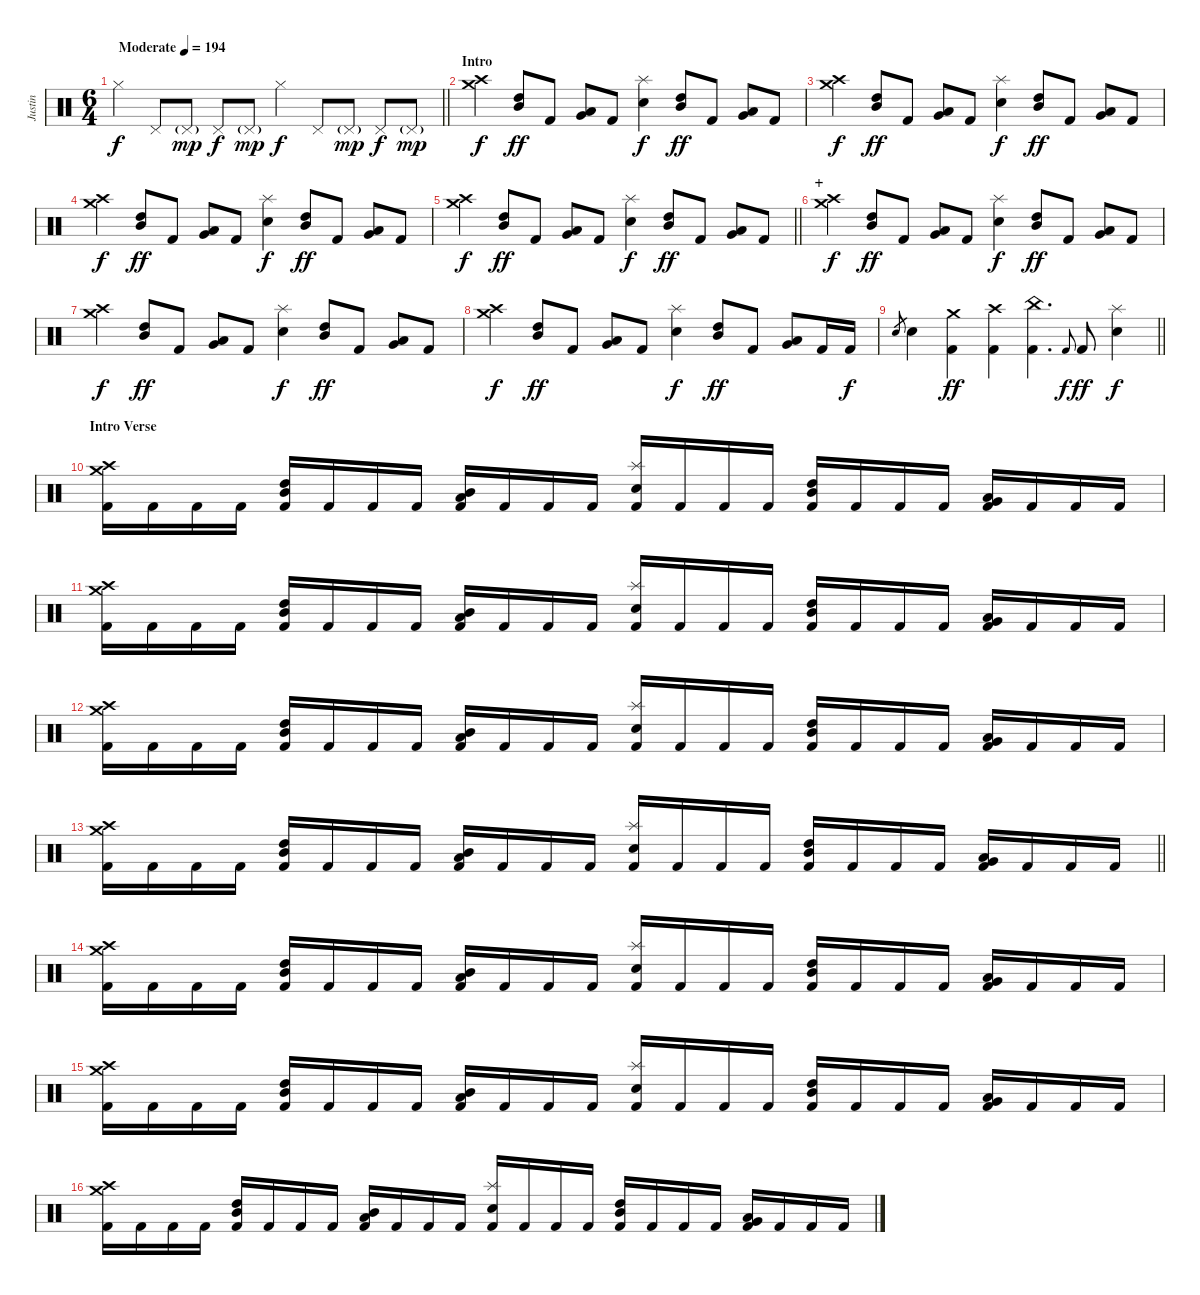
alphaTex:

\track ("Justin" "Justin") {instrument percussion}
\staff {score}
\articulation defaults
\ts (6 4)
\tempo (194 "Moderate")
\clef neutral
\barLineRight lightlight
\ks c "Hi-Hat (closed)".4{dy f} "Pedal Hi-Hat (hit)".8 "Pedal Hi-Hat (hit)"{g}.8{dy mp} "Pedal Hi-Hat (hit)".8{dy f} "Pedal Hi-Hat (hit)"{g}.8{dy mp} "Hi-Hat (closed)".4{dy f} "Pedal Hi-Hat (hit)".8 "Pedal Hi-Hat (hit)"{g}.8{dy mp} "Pedal Hi-Hat (hit)".8{dy f} "Pedal Hi-Hat (hit)"{g}.8{dy mp}
|
\section ("" "Intro")
("Crash medium (hit)" "Crash high (hit)").4{dy f} ("High Tom (hit)" "Mid Tom (hit)").8{dy ff} "Kick (hit) 2".8 ("Low Tom (hit)" "Very Low Tom (hit)").8 "Kick (hit) 2".8 ("Splash (hit)" "Electric Snare (hit)").4{dy f} ("High Tom (hit)" "Mid Tom (hit)").8{dy ff} "Kick (hit) 2".8 ("Low Tom (hit)" "Very Low Tom (hit)").8 "Kick (hit) 2".8 |
("Crash medium (hit)" "Crash high (hit)").4{dy f} ("High Tom (hit)" "Mid Tom (hit)").8{dy ff} "Kick (hit) 2".8 ("Low Tom (hit)" "Very Low Tom (hit)").8 "Kick (hit) 2".8 ("Splash (hit)" "Electric Snare (hit)").4{dy f} ("High Tom (hit)" "Mid Tom (hit)").8{dy ff} "Kick (hit) 2".8 ("Low Tom (hit)" "Very Low Tom (hit)").8 "Kick (hit) 2".8 |
("Crash medium (hit)" "Crash high (hit)").4{dy f} ("High Tom (hit)" "Mid Tom (hit)").8{dy ff} "Kick (hit) 2".8 ("Low Tom (hit)" "Very Low Tom (hit)").8 "Kick (hit) 2".8 ("Splash (hit)" "Electric Snare (hit)").4{dy f} ("High Tom (hit)" "Mid Tom (hit)").8{dy ff} "Kick (hit) 2".8 ("Low Tom (hit)" "Very Low Tom (hit)").8 "Kick (hit) 2".8 |
\barLineRight lightlight
("Crash medium (hit)" "Crash high (hit)").4{dy f} ("High Tom (hit)" "Mid Tom (hit)").8{dy ff} "Kick (hit) 2".8 ("Low Tom (hit)" "Very Low Tom (hit)").8 "Kick (hit) 2".8 ("Splash (hit)" "Electric Snare (hit)").4{dy f} ("High Tom (hit)" "Mid Tom (hit)").8{dy ff} "Kick (hit) 2".8 ("Low Tom (hit)" "Very Low Tom (hit)").8 "Kick (hit) 2".8 |
\section ("" "+")
("Crash medium (hit)" "Crash high (hit)").4{dy f} ("High Tom (hit)" "Mid Tom (hit)").8{dy ff} "Kick (hit) 2".8 ("Low Tom (hit)" "Very Low Tom (hit)").8 "Kick (hit) 2".8 ("Splash (hit)" "Electric Snare (hit)").4{dy f} ("High Tom (hit)" "Mid Tom (hit)").8{dy ff} "Kick (hit) 2".8 ("Low Tom (hit)" "Very Low Tom (hit)").8 "Kick (hit) 2".8 |
("Crash medium (hit)" "Crash high (hit)").4{dy f} ("High Tom (hit)" "Mid Tom (hit)").8{dy ff} "Kick (hit) 2".8 ("Low Tom (hit)" "Very Low Tom (hit)").8 "Kick (hit) 2".8 ("Splash (hit)" "Electric Snare (hit)").4{dy f} ("High Tom (hit)" "Mid Tom (hit)").8{dy ff} "Kick (hit) 2".8 ("Low Tom (hit)" "Very Low Tom (hit)").8 "Kick (hit) 2".8 |
("Crash medium (hit)" "Crash high (hit)").4{dy f} ("High Tom (hit)" "Mid Tom (hit)").8{dy ff} "Kick (hit) 2".8 ("Low Tom (hit)" "Very Low Tom (hit)").8 "Kick (hit) 2".8 ("Splash (hit)" "Electric Snare (hit)").4{dy f} ("High Tom (hit)" "Mid Tom (hit)").8{dy ff} "Kick (hit) 2".8 ("Low Tom (hit)" "Very Low Tom (hit)").8 "Kick (hit) 2".16 "Kick (hit) 2".16{dy f} |
\barLineRight lightlight "Electric Snare (hit)".8{gr} "Electric Snare (hit)".4
("Crash medium (hit)" "Kick (hit) 2").4{dy ff} ("Crash high (hit)" "Kick (hit) 2").4 ("China (hit)" "Kick (hit) 2").4{d} "Kick (hit) 2".8{gr onbeat dy f} "Kick (hit) 2".8{dy ff} ("Splash (hit)" "Electric Snare (hit)").4{dy f} |
\section ("" "Intro Verse")
("Crash medium (hit)" "Crash high (hit)" "Kick (hit) 2").16 "Kick (hit) 2".16 "Kick (hit) 2".16 "Kick (hit) 2".16 ("High Tom (hit)" "Mid Tom (hit)" "Kick (hit) 2").16 "Kick (hit) 2".16 "Kick (hit) 2".16 "Kick (hit) 2".16 ("Mid Tom (hit)" "Low Tom (hit)" "Kick (hit) 2").16 "Kick (hit) 2".16 "Kick (hit) 2".16 "Kick (hit) 2".16 ("Splash (hit)" "Electric Snare (hit)" "Kick (hit) 2").16 "Kick (hit) 2".16 "Kick (hit) 2".16 "Kick (hit) 2".16 ("High Tom (hit)" "Mid Tom (hit)" "Kick (hit) 2").16 "Kick (hit) 2".16 "Kick (hit) 2".16 "Kick (hit) 2".16 ("Low Tom (hit)" "Very Low Tom (hit)" "Kick (hit) 2").16 "Kick (hit) 2".16 "Kick (hit) 2".16 "Kick (hit) 2".16 |
("Crash medium (hit)" "Crash high (hit)" "Kick (hit) 2").16 "Kick (hit) 2".16 "Kick (hit) 2".16 "Kick (hit) 2".16 ("High Tom (hit)" "Mid Tom (hit)" "Kick (hit) 2").16 "Kick (hit) 2".16 "Kick (hit) 2".16 "Kick (hit) 2".16 ("Mid Tom (hit)" "Low Tom (hit)" "Kick (hit) 2").16 "Kick (hit) 2".16 "Kick (hit) 2".16 "Kick (hit) 2".16 ("Splash (hit)" "Electric Snare (hit)" "Kick (hit) 2").16 "Kick (hit) 2".16 "Kick (hit) 2".16 "Kick (hit) 2".16 ("High Tom (hit)" "Mid Tom (hit)" "Kick (hit) 2").16 "Kick (hit) 2".16 "Kick (hit) 2".16 "Kick (hit) 2".16 ("Low Tom (hit)" "Very Low Tom (hit)" "Kick (hit) 2").16 "Kick (hit) 2".16 "Kick (hit) 2".16 "Kick (hit) 2".16 |
("Crash medium (hit)" "Crash high (hit)" "Kick (hit) 2").16 "Kick (hit) 2".16 "Kick (hit) 2".16 "Kick (hit) 2".16 ("High Tom (hit)" "Mid Tom (hit)" "Kick (hit) 2").16 "Kick (hit) 2".16 "Kick (hit) 2".16 "Kick (hit) 2".16 ("Mid Tom (hit)" "Low Tom (hit)" "Kick (hit) 2").16 "Kick (hit) 2".16 "Kick (hit) 2".16 "Kick (hit) 2".16 ("Splash (hit)" "Electric Snare (hit)" "Kick (hit) 2").16 "Kick (hit) 2".16 "Kick (hit) 2".16 "Kick (hit) 2".16 ("High Tom (hit)" "Mid Tom (hit)" "Kick (hit) 2").16 "Kick (hit) 2".16 "Kick (hit) 2".16 "Kick (hit) 2".16 ("Low Tom (hit)" "Very Low Tom (hit)" "Kick (hit) 2").16 "Kick (hit) 2".16 "Kick (hit) 2".16 "Kick (hit) 2".16 |
\barLineRight lightlight
("Crash medium (hit)" "Crash high (hit)" "Kick (hit) 2").16 "Kick (hit) 2".16 "Kick (hit) 2".16 "Kick (hit) 2".16 ("High Tom (hit)" "Mid Tom (hit)" "Kick (hit) 2").16 "Kick (hit) 2".16 "Kick (hit) 2".16 "Kick (hit) 2".16 ("Mid Tom (hit)" "Low Tom (hit)" "Kick (hit) 2").16 "Kick (hit) 2".16 "Kick (hit) 2".16 "Kick (hit) 2".16 ("Splash (hit)" "Electric Snare (hit)" "Kick (hit) 2").16 "Kick (hit) 2".16 "Kick (hit) 2".16 "Kick (hit) 2".16 ("High Tom (hit)" "Mid Tom (hit)" "Kick (hit) 2").16 "Kick (hit) 2".16 "Kick (hit) 2".16 "Kick (hit) 2".16 ("Low Tom (hit)" "Very Low Tom (hit)" "Kick (hit) 2").16 "Kick (hit) 2".16 "Kick (hit) 2".16 "Kick (hit) 2".16 |
("Crash medium (hit)" "Crash high (hit)" "Kick (hit) 2").16 "Kick (hit) 2".16 "Kick (hit) 2".16 "Kick (hit) 2".16 ("High Tom (hit)" "Mid Tom (hit)" "Kick (hit) 2").16 "Kick (hit) 2".16 "Kick (hit) 2".16 "Kick (hit) 2".16 ("Mid Tom (hit)" "Low Tom (hit)" "Kick (hit) 2").16 "Kick (hit) 2".16 "Kick (hit) 2".16 "Kick (hit) 2".16 ("Splash (hit)" "Electric Snare (hit)" "Kick (hit) 2").16 "Kick (hit) 2".16 "Kick (hit) 2".16 "Kick (hit) 2".16 ("High Tom (hit)" "Mid Tom (hit)" "Kick (hit) 2").16 "Kick (hit) 2".16 "Kick (hit) 2".16 "Kick (hit) 2".16 ("Low Tom (hit)" "Very Low Tom (hit)" "Kick (hit) 2").16 "Kick (hit) 2".16 "Kick (hit) 2".16 "Kick (hit) 2".16 |
("Crash medium (hit)" "Crash high (hit)" "Kick (hit) 2").16 "Kick (hit) 2".16 "Kick (hit) 2".16 "Kick (hit) 2".16 ("High Tom (hit)" "Mid Tom (hit)" "Kick (hit) 2").16 "Kick (hit) 2".16 "Kick (hit) 2".16 "Kick (hit) 2".16 ("Mid Tom (hit)" "Low Tom (hit)" "Kick (hit) 2").16 "Kick (hit) 2".16 "Kick (hit) 2".16 "Kick (hit) 2".16 ("Splash (hit)" "Electric Snare (hit)" "Kick (hit) 2").16 "Kick (hit) 2".16 "Kick (hit) 2".16 "Kick (hit) 2".16 ("High Tom (hit)" "Mid Tom (hit)" "Kick (hit) 2").16 "Kick (hit) 2".16 "Kick (hit) 2".16 "Kick (hit) 2".16 ("Low Tom (hit)" "Very Low Tom (hit)" "Kick (hit) 2").16 "Kick (hit) 2".16 "Kick (hit) 2".16 "Kick (hit) 2".16 |
("Crash medium (hit)" "Crash high (hit)" "Kick (hit) 2").16 "Kick (hit) 2".16 "Kick (hit) 2".16 "Kick (hit) 2".16 ("High Tom (hit)" "Mid Tom (hit)" "Kick (hit) 2").16 "Kick (hit) 2".16 "Kick (hit) 2".16 "Kick (hit) 2".16 ("Mid Tom (hit)" "Low Tom (hit)" "Kick (hit) 2").16 "Kick (hit) 2".16 "Kick (hit) 2".16 "Kick (hit) 2".16 ("Splash (hit)" "Electric Snare (hit)" "Kick (hit) 2").16 "Kick (hit) 2".16 "Kick (hit) 2".16 "Kick (hit) 2".16 ("High Tom (hit)" "Mid Tom (hit)" "Kick (hit) 2").16 "Kick (hit) 2".16 "Kick (hit) 2".16 "Kick (hit) 2".16 ("Low Tom (hit)" "Very Low Tom (hit)" "Kick (hit) 2").16 "Kick (hit) 2".16 "Kick (hit) 2".16 "Kick (hit) 2".16
